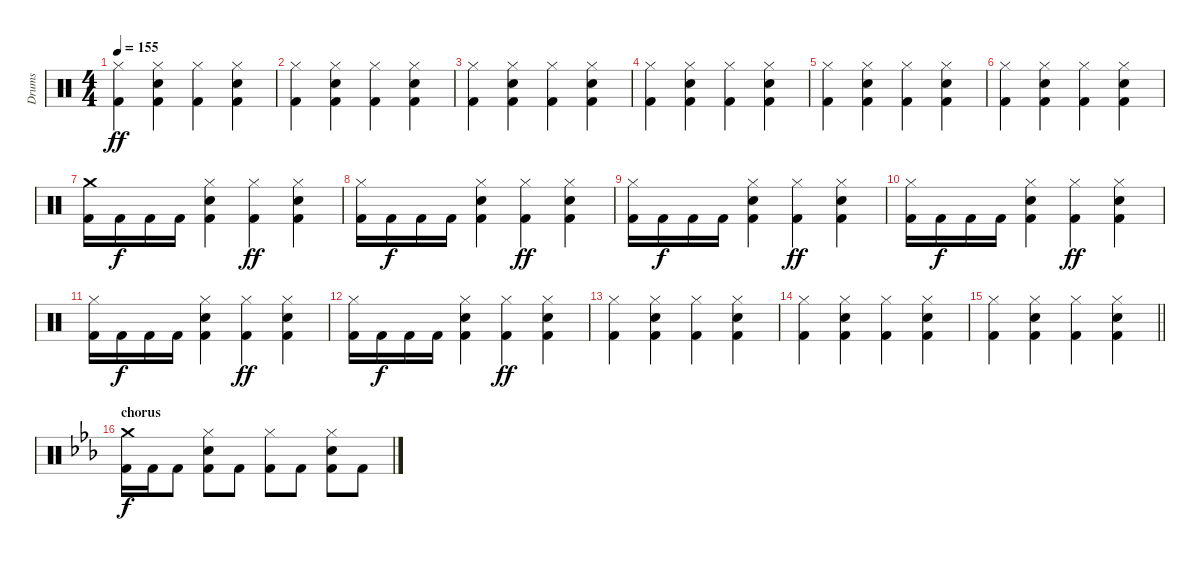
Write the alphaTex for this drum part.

\track ("Drums" "Drums") {instrument percussion}
\staff {score}
\articulation defaults
\ts (4 4)
\tempo 155
\clef neutral
\ks aminor
("Hi-Hat (closed)" "Kick (hit) 2").4{dy ff} ("Hi-Hat (closed)" "Electric Snare (hit)" "Kick (hit) 2").4 ("Hi-Hat (closed)" "Kick (hit) 2").4 ("Hi-Hat (closed)" "Electric Snare (hit)" "Kick (hit) 2").4 |
("Hi-Hat (closed)" "Kick (hit) 2").4 ("Hi-Hat (closed)" "Electric Snare (hit)" "Kick (hit) 2").4 ("Hi-Hat (closed)" "Kick (hit) 2").4 ("Hi-Hat (closed)" "Electric Snare (hit)" "Kick (hit) 2").4 |
("Hi-Hat (closed)" "Kick (hit) 2").4 ("Hi-Hat (closed)" "Electric Snare (hit)" "Kick (hit) 2").4 ("Hi-Hat (closed)" "Kick (hit) 2").4 ("Hi-Hat (closed)" "Electric Snare (hit)" "Kick (hit) 2").4 |
("Hi-Hat (closed)" "Kick (hit) 2").4 ("Hi-Hat (closed)" "Electric Snare (hit)" "Kick (hit) 2").4 ("Hi-Hat (closed)" "Kick (hit) 2").4 ("Hi-Hat (closed)" "Electric Snare (hit)" "Kick (hit) 2").4 |
("Hi-Hat (closed)" "Kick (hit) 2").4 ("Hi-Hat (closed)" "Electric Snare (hit)" "Kick (hit) 2").4 ("Hi-Hat (closed)" "Kick (hit) 2").4 ("Hi-Hat (closed)" "Electric Snare (hit)" "Kick (hit) 2").4 |
("Hi-Hat (closed)" "Kick (hit) 2").4 ("Hi-Hat (closed)" "Electric Snare (hit)" "Kick (hit) 2").4 ("Hi-Hat (closed)" "Kick (hit) 2").4 ("Hi-Hat (closed)" "Electric Snare (hit)" "Kick (hit) 2").4 |
("Crash medium (hit)" "Kick (hit) 2").16 "Kick (hit) 2".16{dy f} "Kick (hit) 2".16 "Kick (hit) 2".16 ("Hi-Hat (closed)" "Electric Snare (hit)" "Kick (hit) 2").4 ("Hi-Hat (closed)" "Kick (hit) 2").4{dy ff} ("Hi-Hat (closed)" "Electric Snare (hit)" "Kick (hit) 2").4 |
("Hi-Hat (closed)" "Kick (hit) 2").16 "Kick (hit) 2".16{dy f} "Kick (hit) 2".16 "Kick (hit) 2".16 ("Hi-Hat (closed)" "Electric Snare (hit)" "Kick (hit) 2").4 ("Hi-Hat (closed)" "Kick (hit) 2").4{dy ff} ("Hi-Hat (closed)" "Electric Snare (hit)" "Kick (hit) 2").4 |
("Hi-Hat (closed)" "Kick (hit) 2").16 "Kick (hit) 2".16{dy f} "Kick (hit) 2".16 "Kick (hit) 2".16 ("Hi-Hat (closed)" "Electric Snare (hit)" "Kick (hit) 2").4 ("Hi-Hat (closed)" "Kick (hit) 2").4{dy ff} ("Hi-Hat (closed)" "Electric Snare (hit)" "Kick (hit) 2").4 |
("Hi-Hat (closed)" "Kick (hit) 2").16 "Kick (hit) 2".16{dy f} "Kick (hit) 2".16 "Kick (hit) 2".16 ("Hi-Hat (closed)" "Electric Snare (hit)" "Kick (hit) 2").4 ("Hi-Hat (closed)" "Kick (hit) 2").4{dy ff} ("Hi-Hat (closed)" "Electric Snare (hit)" "Kick (hit) 2").4 |
("Hi-Hat (closed)" "Kick (hit) 2").16 "Kick (hit) 2".16{dy f} "Kick (hit) 2".16 "Kick (hit) 2".16 ("Hi-Hat (closed)" "Electric Snare (hit)" "Kick (hit) 2").4 ("Hi-Hat (closed)" "Kick (hit) 2").4{dy ff} ("Hi-Hat (closed)" "Electric Snare (hit)" "Kick (hit) 2").4 |
("Hi-Hat (closed)" "Kick (hit) 2").16 "Kick (hit) 2".16{dy f} "Kick (hit) 2".16 "Kick (hit) 2".16 ("Hi-Hat (closed)" "Electric Snare (hit)" "Kick (hit) 2").4 ("Hi-Hat (closed)" "Kick (hit) 2").4{dy ff} ("Hi-Hat (closed)" "Electric Snare (hit)" "Kick (hit) 2").4 |
("Hi-Hat (closed)" "Kick (hit) 2").4 ("Hi-Hat (closed)" "Electric Snare (hit)" "Kick (hit) 2").4 ("Hi-Hat (closed)" "Kick (hit) 2").4 ("Hi-Hat (closed)" "Electric Snare (hit)" "Kick (hit) 2").4 |
("Hi-Hat (closed)" "Kick (hit) 2").4 ("Hi-Hat (closed)" "Electric Snare (hit)" "Kick (hit) 2").4 ("Hi-Hat (closed)" "Kick (hit) 2").4 ("Hi-Hat (closed)" "Electric Snare (hit)" "Kick (hit) 2").4 |
\barLineRight lightlight
("Hi-Hat (closed)" "Kick (hit) 2").4 ("Hi-Hat (closed)" "Electric Snare (hit)" "Kick (hit) 2").4 ("Hi-Hat (closed)" "Kick (hit) 2").4 ("Hi-Hat (closed)" "Electric Snare (hit)" "Kick (hit) 2").4 |
\section ("" "chorus")
\ks cminor
("Crash medium (hit)" "Kick (hit) 2").16{dy f} "Kick (hit) 2".16 "Kick (hit) 2".8 ("Hi-Hat (closed)" "Electric Snare (hit)" "Kick (hit) 2").8 "Kick (hit) 2".8 ("Hi-Hat (closed)" "Kick (hit) 2").8 "Kick (hit) 2".8 ("Hi-Hat (closed)" "Electric Snare (hit)" "Kick (hit) 2").8 "Kick (hit) 2".8
